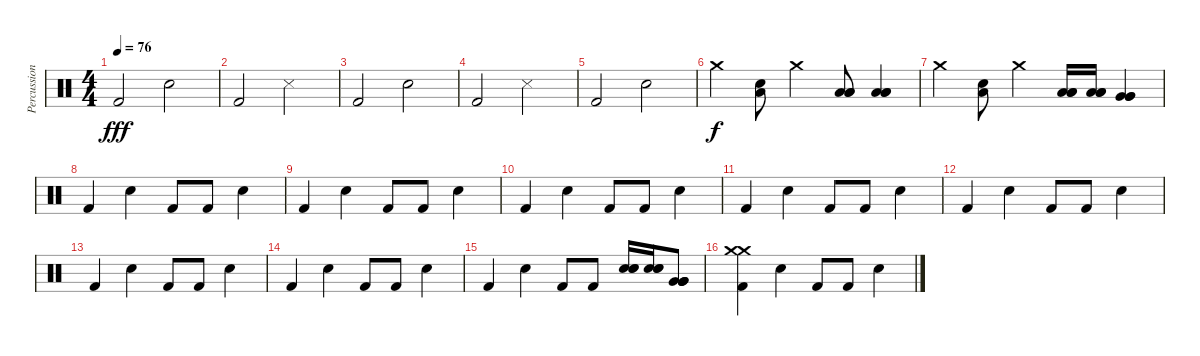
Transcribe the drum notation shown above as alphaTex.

\track ("Percussion" "Percussion") {instrument percussion}
\staff {score}
\articulation defaults
\ts (4 4)
\tempo 76
\clef neutral
\ks c "Kick (hit) 2".2{dy fff} "Electric Snare (hit)".2
|
"Kick (hit) 2".2 "Snare (side stick) 3".2 |
"Kick (hit) 2".2 "Electric Snare (hit)".2 |
"Kick (hit) 2".2 "Snare (side stick) 3".2 |
"Kick (hit) 2".2 "Electric Snare (hit)".2 |
"Crash medium (hit)".4{dy f} ("Low Tom (hit)" "Electric Snare (hit)").8 "Crash medium (hit)".4 ("Low Tom (hit)" "Low Tom (hit)" "Low Tom (hit)").8 ("Low Tom (hit)" "Low Tom (hit)" "Low Tom (hit)").4 |
"Crash medium (hit)".4 ("Low Tom (hit)" "Electric Snare (hit)").8 "Crash medium (hit)".4 ("Low Tom (hit)" "Low Tom (hit)" "Low Tom (hit)").16 ("Low Tom (hit)" "Low Tom (hit)" "Low Tom (hit)").16 ("Very Low Tom (hit)" "Very Low Tom (hit)" "Very Low Tom (hit)").4 |
"Kick (hit) 2".4 "Electric Snare (hit)".4 "Kick (hit) 2".8 "Kick (hit) 2".8 "Electric Snare (hit)".4 |
"Kick (hit) 2".4 "Electric Snare (hit)".4 "Kick (hit) 2".8 "Kick (hit) 2".8 "Electric Snare (hit)".4 |
"Kick (hit) 2".4 "Electric Snare (hit)".4 "Kick (hit) 2".8 "Kick (hit) 2".8 "Electric Snare (hit)".4 |
"Kick (hit) 2".4 "Electric Snare (hit)".4 "Kick (hit) 2".8 "Kick (hit) 2".8 "Electric Snare (hit)".4 |
"Kick (hit) 2".4 "Electric Snare (hit)".4 "Kick (hit) 2".8 "Kick (hit) 2".8 "Electric Snare (hit)".4 |
"Kick (hit) 2".4 "Electric Snare (hit)".4 "Kick (hit) 2".8 "Kick (hit) 2".8 "Electric Snare (hit)".4 |
"Kick (hit) 2".4 "Electric Snare (hit)".4 "Kick (hit) 2".8 "Kick (hit) 2".8 "Electric Snare (hit)".4 |
"Kick (hit) 2".4 "Electric Snare (hit)".4 "Kick (hit) 2".8 "Kick (hit) 2".8 ("Electric Snare (hit)" "Electric Snare (hit)" "Electric Snare (hit)").16 ("Electric Snare (hit)" "Electric Snare (hit)" "Electric Snare (hit)").16 ("Very Low Tom (hit)" "Very Low Tom (hit)" "Very Low Tom (hit)" "Very Low Tom (hit)").8 |
("Kick (hit) 2" "Crash medium (hit)" "Crash medium (hit)").4 "Electric Snare (hit)".4 "Kick (hit) 2".8 "Kick (hit) 2".8 "Electric Snare (hit)".4
